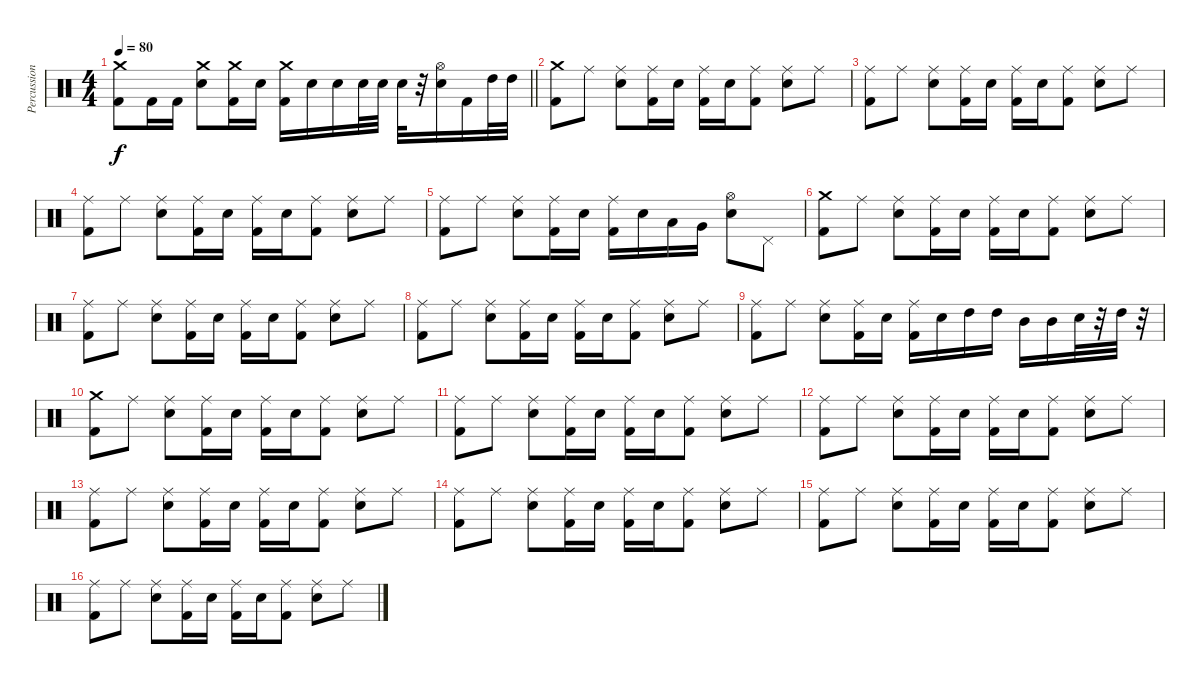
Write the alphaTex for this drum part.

\track ("Percussion" "Percussion") {instrument percussion}
\staff {score}
\articulation defaults
\ts (4 4)
\tempo 80
\clef neutral
\barLineRight lightlight
\ks c
("Crash medium (hit)" "Kick (hit) 2").8{dy f} "Kick (hit) 2".16 "Kick (hit) 2".16 ("Crash medium (hit)" "Electric Snare (hit)").8 ("Crash medium (hit)" "Kick (hit) 2").16 "Electric Snare (hit)".16 ("Crash medium (hit)" "Kick (hit) 2").16 "Electric Snare (hit)".16 "Electric Snare (hit)".16 "Electric Snare (hit)".32 "Electric Snare (hit)".32 "Electric Snare (hit)".32 r.32 ("Hi-Hat (open)" "Electric Snare (hit)").16 "Kick (hit) 2".16 "High Tom (hit)".32 "High Tom (hit)".32 |
("Crash medium (hit)" "Kick (hit) 2").8{volume 7} "Ride (middle)".8 ("Ride (middle)" "Electric Snare (hit)").8 ("Ride (middle)" "Kick (hit) 2").16 "Electric Snare (hit)".16 ("Ride (middle)" "Kick (hit) 2").16 "Electric Snare (hit)".16 ("Ride (middle)" "Kick (hit) 2").8 ("Ride (middle)" "Electric Snare (hit)").8 "Ride (middle)".8 |
("Ride (middle)" "Kick (hit) 2").8 "Ride (middle)".8 ("Ride (middle)" "Electric Snare (hit)").8 ("Ride (middle)" "Kick (hit) 2").16 "Electric Snare (hit)".16 ("Ride (middle)" "Kick (hit) 2").16 "Electric Snare (hit)".16 ("Ride (middle)" "Kick (hit) 2").8 ("Ride (middle)" "Electric Snare (hit)").8 "Ride (middle)".8 |
("Ride (middle)" "Kick (hit) 2").8 "Ride (middle)".8 ("Ride (middle)" "Electric Snare (hit)").8 ("Ride (middle)" "Kick (hit) 2").16 "Electric Snare (hit)".16 ("Ride (middle)" "Kick (hit) 2").16 "Electric Snare (hit)".16 ("Ride (middle)" "Kick (hit) 2").8 ("Ride (middle)" "Electric Snare (hit)").8 "Ride (middle)".8 |
("Ride (middle)" "Kick (hit) 2").8 "Ride (middle)".8 ("Ride (middle)" "Electric Snare (hit)").8 ("Ride (middle)" "Kick (hit) 2").16 "Electric Snare (hit)".16 ("Ride (middle)" "Kick (hit) 2").16 "Electric Snare (hit)".16 "Low Tom (hit)".16 "Very Low Tom (hit)".16 ("Hi-Hat (open)" "Electric Snare (hit)").8 "Pedal Hi-Hat (hit)".8 |
("Crash medium (hit)" "Kick (hit) 2").8 "Ride (middle)".8 ("Ride (middle)" "Electric Snare (hit)").8 ("Ride (middle)" "Kick (hit) 2").16 "Electric Snare (hit)".16 ("Ride (middle)" "Kick (hit) 2").16 "Electric Snare (hit)".16 ("Ride (middle)" "Kick (hit) 2").8 ("Ride (middle)" "Electric Snare (hit)").8 "Ride (middle)".8 |
("Ride (middle)" "Kick (hit) 2").8 "Ride (middle)".8 ("Ride (middle)" "Electric Snare (hit)").8 ("Ride (middle)" "Kick (hit) 2").16 "Electric Snare (hit)".16 ("Ride (middle)" "Kick (hit) 2").16 "Electric Snare (hit)".16 ("Ride (middle)" "Kick (hit) 2").8 ("Ride (middle)" "Electric Snare (hit)").8 "Ride (middle)".8 |
("Ride (middle)" "Kick (hit) 2").8 "Ride (middle)".8 ("Ride (middle)" "Electric Snare (hit)").8 ("Ride (middle)" "Kick (hit) 2").16 "Electric Snare (hit)".16 ("Ride (middle)" "Kick (hit) 2").16 "Electric Snare (hit)".16 ("Ride (middle)" "Kick (hit) 2").8 ("Ride (middle)" "Electric Snare (hit)").8 "Ride (middle)".8 |
("Ride (middle)" "Kick (hit) 2").8 "Ride (middle)".8 ("Ride (middle)" "Electric Snare (hit)").8 ("Ride (middle)" "Kick (hit) 2").16 "Electric Snare (hit)".16 ("Ride (middle)" "Kick (hit) 2").16 "Electric Snare (hit)".16 "High Tom (hit)".16 "High Tom (hit)".16 "Mid Tom (hit)".16 "Mid Tom (hit)".16 "Electric Snare (hit)".32 r.32 "High Tom (hit)".32 r.32 |
("Crash medium (hit)" "Kick (hit) 2").8 "Ride (middle)".8 ("Ride (middle)" "Electric Snare (hit)").8 ("Ride (middle)" "Kick (hit) 2").16 "Electric Snare (hit)".16 ("Ride (middle)" "Kick (hit) 2").16 "Electric Snare (hit)".16 ("Ride (middle)" "Kick (hit) 2").8 ("Ride (middle)" "Electric Snare (hit)").8 "Ride (middle)".8 |
("Ride (middle)" "Kick (hit) 2").8 "Ride (middle)".8 ("Ride (middle)" "Electric Snare (hit)").8 ("Ride (middle)" "Kick (hit) 2").16 "Electric Snare (hit)".16 ("Ride (middle)" "Kick (hit) 2").16 "Electric Snare (hit)".16 ("Ride (middle)" "Kick (hit) 2").8 ("Ride (middle)" "Electric Snare (hit)").8 "Ride (middle)".8 |
("Ride (middle)" "Kick (hit) 2").8 "Ride (middle)".8 ("Ride (middle)" "Electric Snare (hit)").8 ("Ride (middle)" "Kick (hit) 2").16 "Electric Snare (hit)".16 ("Ride (middle)" "Kick (hit) 2").16 "Electric Snare (hit)".16 ("Ride (middle)" "Kick (hit) 2").8 ("Ride (middle)" "Electric Snare (hit)").8 "Ride (middle)".8 |
("Ride (middle)" "Kick (hit) 2").8 "Ride (middle)".8 ("Ride (middle)" "Electric Snare (hit)").8 ("Ride (middle)" "Kick (hit) 2").16 "Electric Snare (hit)".16 ("Ride (middle)" "Kick (hit) 2").16 "Electric Snare (hit)".16 ("Ride (middle)" "Kick (hit) 2").8 ("Ride (middle)" "Electric Snare (hit)").8 "Ride (middle)".8 |
("Ride (middle)" "Kick (hit) 2").8 "Ride (middle)".8 ("Ride (middle)" "Electric Snare (hit)").8 ("Ride (middle)" "Kick (hit) 2").16 "Electric Snare (hit)".16 ("Ride (middle)" "Kick (hit) 2").16 "Electric Snare (hit)".16 ("Ride (middle)" "Kick (hit) 2").8 ("Ride (middle)" "Electric Snare (hit)").8 "Ride (middle)".8 |
("Ride (middle)" "Kick (hit) 2").8 "Ride (middle)".8 ("Ride (middle)" "Electric Snare (hit)").8 ("Ride (middle)" "Kick (hit) 2").16 "Electric Snare (hit)".16 ("Ride (middle)" "Kick (hit) 2").16 "Electric Snare (hit)".16 ("Ride (middle)" "Kick (hit) 2").8 ("Ride (middle)" "Electric Snare (hit)").8 "Ride (middle)".8 |
("Ride (middle)" "Kick (hit) 2").8 "Ride (middle)".8 ("Ride (middle)" "Electric Snare (hit)").8 ("Ride (middle)" "Kick (hit) 2").16 "Electric Snare (hit)".16 ("Ride (middle)" "Kick (hit) 2").16 "Electric Snare (hit)".16 ("Ride (middle)" "Kick (hit) 2").8 ("Ride (middle)" "Electric Snare (hit)").8 "Ride (middle)".8
